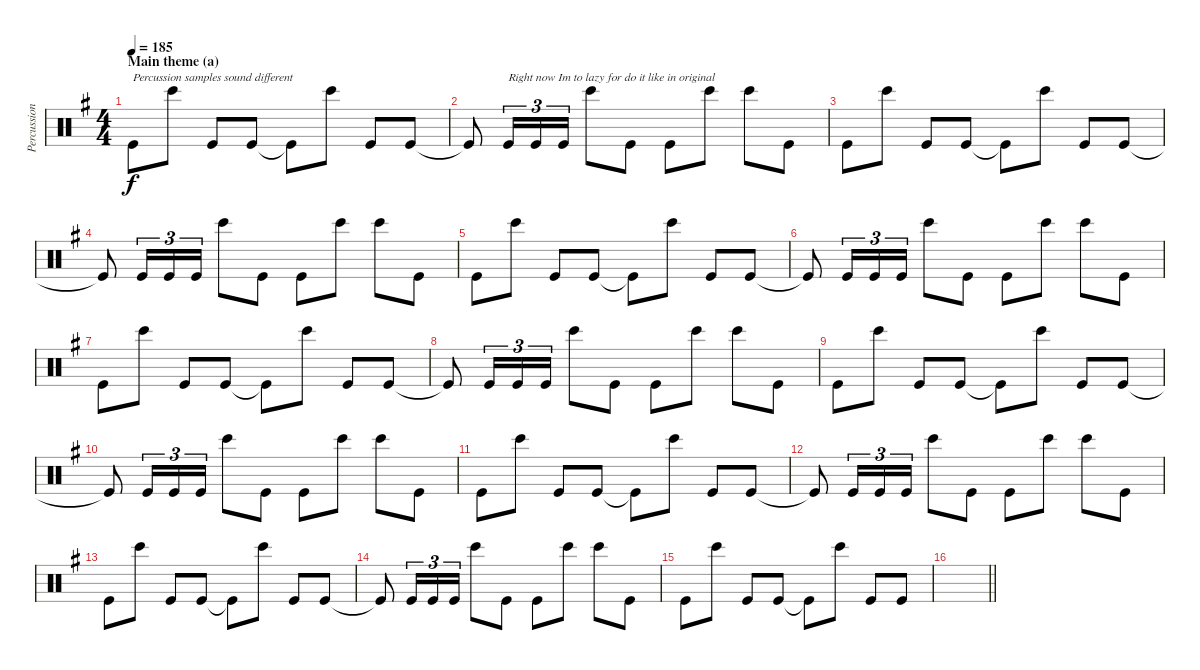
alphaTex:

\track ("Percussion sample" "Percussion") {instrument percussion}
\staff {score}
\articulation defaults
\ts (4 4)
\section ("" "Main theme (a)")
\tempo 185
\clef neutral
\ks eminor "Kick (hit)".8{txt "Percussion samples sound different " dy f} "Bongo High (hit)".8 "Kick (hit)".8 "Kick (hit)".8 "Kick (hit)"{t}.8 "Bongo High (hit)".8 "Kick (hit)".8 "Kick (hit)".8
|
"Kick (hit)"{t}.8 "Kick (hit)".16{tu (3 2) txt "Right now Im to lazy for do it like in original"} "Kick (hit)".16{tu (3 2)} "Kick (hit)".16{tu (3 2)} "Bongo High (hit)".8 "Kick (hit)".8 "Kick (hit)".8 "Bongo High (hit)".8 "Bongo High (hit)".8 "Kick (hit)".8 |
"Kick (hit)".8 "Bongo High (hit)".8 "Kick (hit)".8 "Kick (hit)".8 "Kick (hit)"{t}.8 "Bongo High (hit)".8 "Kick (hit)".8 "Kick (hit)".8 |
"Kick (hit)"{t}.8 "Kick (hit)".16{tu (3 2)} "Kick (hit)".16{tu (3 2)} "Kick (hit)".16{tu (3 2)} "Bongo High (hit)".8 "Kick (hit)".8 "Kick (hit)".8 "Bongo High (hit)".8 "Bongo High (hit)".8 "Kick (hit)".8 |
"Kick (hit)".8 "Bongo High (hit)".8 "Kick (hit)".8 "Kick (hit)".8 "Kick (hit)"{t}.8 "Bongo High (hit)".8 "Kick (hit)".8 "Kick (hit)".8 |
"Kick (hit)"{t}.8 "Kick (hit)".16{tu (3 2)} "Kick (hit)".16{tu (3 2)} "Kick (hit)".16{tu (3 2)} "Bongo High (hit)".8 "Kick (hit)".8 "Kick (hit)".8 "Bongo High (hit)".8 "Bongo High (hit)".8 "Kick (hit)".8 |
"Kick (hit)".8 "Bongo High (hit)".8 "Kick (hit)".8 "Kick (hit)".8 "Kick (hit)"{t}.8 "Bongo High (hit)".8 "Kick (hit)".8 "Kick (hit)".8 |
"Kick (hit)"{t}.8 "Kick (hit)".16{tu (3 2)} "Kick (hit)".16{tu (3 2)} "Kick (hit)".16{tu (3 2)} "Bongo High (hit)".8 "Kick (hit)".8 "Kick (hit)".8 "Bongo High (hit)".8 "Bongo High (hit)".8 "Kick (hit)".8 |
"Kick (hit)".8 "Bongo High (hit)".8 "Kick (hit)".8 "Kick (hit)".8 "Kick (hit)"{t}.8 "Bongo High (hit)".8 "Kick (hit)".8 "Kick (hit)".8 |
"Kick (hit)"{t}.8 "Kick (hit)".16{tu (3 2)} "Kick (hit)".16{tu (3 2)} "Kick (hit)".16{tu (3 2)} "Bongo High (hit)".8 "Kick (hit)".8 "Kick (hit)".8 "Bongo High (hit)".8 "Bongo High (hit)".8 "Kick (hit)".8 |
"Kick (hit)".8 "Bongo High (hit)".8 "Kick (hit)".8 "Kick (hit)".8 "Kick (hit)"{t}.8 "Bongo High (hit)".8 "Kick (hit)".8 "Kick (hit)".8 |
"Kick (hit)"{t}.8 "Kick (hit)".16{tu (3 2)} "Kick (hit)".16{tu (3 2)} "Kick (hit)".16{tu (3 2)} "Bongo High (hit)".8 "Kick (hit)".8 "Kick (hit)".8 "Bongo High (hit)".8 "Bongo High (hit)".8 "Kick (hit)".8 |
"Kick (hit)".8 "Bongo High (hit)".8 "Kick (hit)".8 "Kick (hit)".8 "Kick (hit)"{t}.8 "Bongo High (hit)".8 "Kick (hit)".8 "Kick (hit)".8 |
"Kick (hit)"{t}.8 "Kick (hit)".16{tu (3 2)} "Kick (hit)".16{tu (3 2)} "Kick (hit)".16{tu (3 2)} "Bongo High (hit)".8 "Kick (hit)".8 "Kick (hit)".8 "Bongo High (hit)".8 "Bongo High (hit)".8 "Kick (hit)".8 |
"Kick (hit)".8 "Bongo High (hit)".8 "Kick (hit)".8 "Kick (hit)".8 "Kick (hit)"{t}.8 "Bongo High (hit)".8 "Kick (hit)".8 "Kick (hit)".8 |
\barLineRight lightlight
